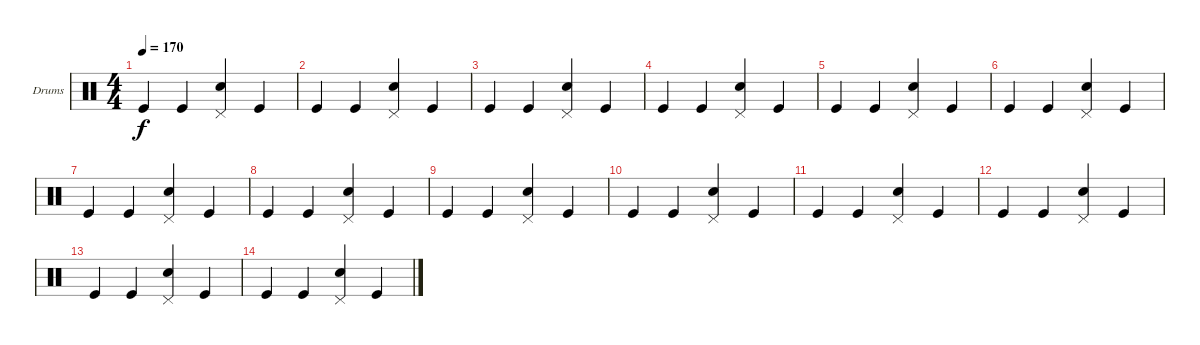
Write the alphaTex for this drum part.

\bracketExtendMode groupsimilarinstruments
\firstSystemTrackNameOrientation horizontal
\otherSystemsTrackNameOrientation horizontal
\track ("Danya" "Drums") {mute instrument percussion}
\staff {score}
\articulation defaults
\ts (4 4)
\tempo 170
\clef neutral
\ks c "Kick (hit)".4{dy f} "Kick (hit)".4
("Snare (hit) 2" "Pedal Hi-Hat (hit)").4 "Kick (hit)".4 |
"Kick (hit)".4 "Kick (hit)".4 ("Snare (hit) 2" "Pedal Hi-Hat (hit)").4 "Kick (hit)".4 |
"Kick (hit)".4 "Kick (hit)".4 ("Snare (hit) 2" "Pedal Hi-Hat (hit)").4 "Kick (hit)".4 |
\scale
0.333333 "Kick (hit)".4 "Kick (hit)".4 ("Snare (hit) 2" "Pedal Hi-Hat (hit)").4 "Kick (hit)".4 |
\scale
0.333333 "Kick (hit)".4 "Kick (hit)".4 ("Snare (hit) 2" "Pedal Hi-Hat (hit)").4 "Kick (hit)".4 |
\scale
0.333333 "Kick (hit)".4 "Kick (hit)".4 ("Snare (hit) 2" "Pedal Hi-Hat (hit)").4 "Kick (hit)".4 |
\scale
0.333333 "Kick (hit)".4 "Kick (hit)".4 ("Snare (hit) 2" "Pedal Hi-Hat (hit)").4 "Kick (hit)".4 |
\scale
0.333333 "Kick (hit)".4 "Kick (hit)".4 ("Snare (hit) 2" "Pedal Hi-Hat (hit)").4 "Kick (hit)".4 |
\scale
0.333333 "Kick (hit)".4 "Kick (hit)".4 ("Snare (hit) 2" "Pedal Hi-Hat (hit)").4 "Kick (hit)".4 |
\scale
0.333333 "Kick (hit)".4 "Kick (hit)".4 ("Snare (hit) 2" "Pedal Hi-Hat (hit)").4 "Kick (hit)".4 |
\scale
0.333333 "Kick (hit)".4 "Kick (hit)".4 ("Snare (hit) 2" "Pedal Hi-Hat (hit)").4 "Kick (hit)".4 |
"Kick (hit)".4 "Kick (hit)".4 ("Snare (hit) 2" "Pedal Hi-Hat (hit)").4 "Kick (hit)".4 |
"Kick (hit)".4 "Kick (hit)".4 ("Snare (hit) 2" "Pedal Hi-Hat (hit)").4 "Kick (hit)".4 |
"Kick (hit)".4 "Kick (hit)".4 ("Snare (hit) 2" "Pedal Hi-Hat (hit)").4 "Kick (hit)".4
